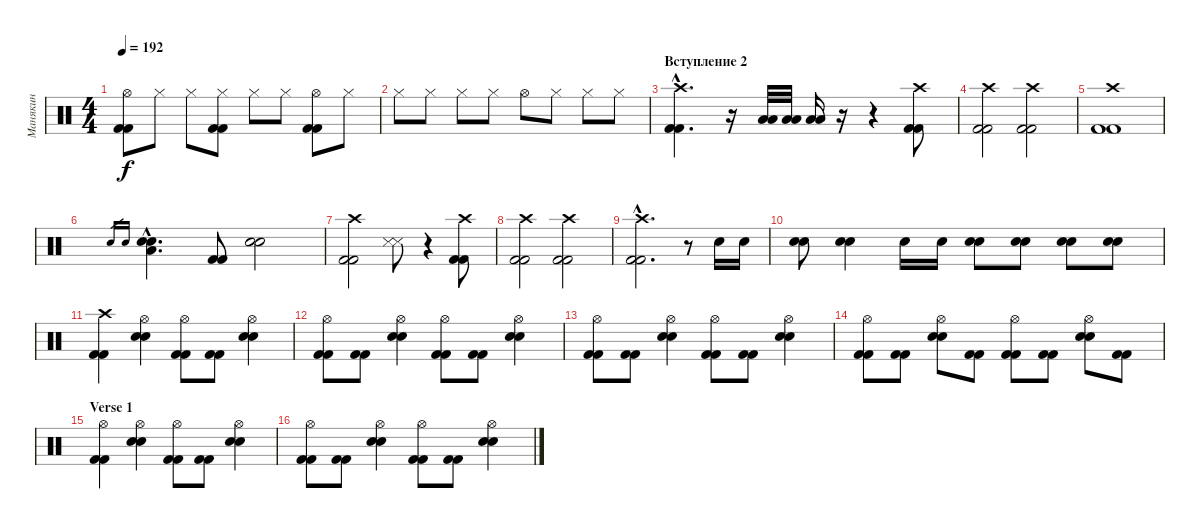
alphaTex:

\track ("Манякин" "Манякин") {instrument percussion}
\staff {score}
\articulation defaults
\ts (4 4)
\tempo 192
\clef neutral
\ks c
("Hi-Hat (open)" "Kick (hit) 2" "Kick (hit) 2").8{dy f} "Hi-Hat (closed)".8 "Hi-Hat (closed)".8 ("Hi-Hat (closed)" "Kick (hit) 2" "Kick (hit) 2").8 "Hi-Hat (closed)".8 "Hi-Hat (closed)".8 ("Hi-Hat (open)" "Kick (hit) 2" "Kick (hit) 2").8 "Hi-Hat (closed)".8 |
"Hi-Hat (closed)".8 "Hi-Hat (closed)".8 "Hi-Hat (closed)".8 "Hi-Hat (closed)".8 "Hi-Hat (open)".8 "Hi-Hat (closed)".8 "Hi-Hat (closed)".8 "Hi-Hat (closed)".8 |
\section ("" "Вступление 2")
("Crash high (hit)"{hac} "Kick (hit) 2"{hac} "Kick (hit) 2"{hac}).4{d} r.16 ("Low Tom (hit)" "Low Tom (hit)").32 ("Low Tom (hit)" "Low Tom (hit)").32 ("Low Tom (hit)" "Low Tom (hit)").16 r.16 r.4 ("Crash high (hit)" "Kick (hit) 2" "Kick (hit) 2").8 |
("Crash high (hit)" "Kick (hit) 2" "Kick (hit) 2").2 ("Crash high (hit)" "Kick (hit) 2" "Kick (hit) 2").2 |
("Crash high (hit)" "Kick (hit) 2" "Kick (hit) 2").1 |
"Electric Snare (hit)".16{gr} "Electric Snare (hit)".16{gr} ("Electric Snare (hit)"{hac} "Electric Snare (hit)"{hac} "Low Tom (hit)"{hac}).4{d} ("Kick (hit) 2" "Kick (hit) 2").8 ("Electric Snare (hit)" "Electric Snare (hit)").2 |
("Crash high (hit)" "Kick (hit) 2" "Kick (hit) 2").2 ("Snare (side stick) 3" "Snare (side stick) 3").8 r.4 ("Crash high (hit)" "Kick (hit) 2" "Kick (hit) 2").8 |
("Crash high (hit)" "Kick (hit) 2" "Kick (hit) 2").2 ("Crash high (hit)" "Kick (hit) 2" "Kick (hit) 2").2 |
("Crash high (hit)"{hac} "Kick (hit) 2"{hac} "Kick (hit) 2"{hac}).2{d} r.8 "Electric Snare (hit)".16 "Electric Snare (hit)".16 |
("Electric Snare (hit)" "Electric Snare (hit)").8 ("Electric Snare (hit)" "Electric Snare (hit)").4 "Electric Snare (hit)".16 "Electric Snare (hit)".16 ("Electric Snare (hit)" "Electric Snare (hit)").8 ("Electric Snare (hit)" "Electric Snare (hit)").8 ("Electric Snare (hit)" "Electric Snare (hit)").8 ("Electric Snare (hit)" "Electric Snare (hit)").8 |
("Crash high (hit)" "Kick (hit) 2" "Kick (hit) 2").4 ("Hi-Hat (open)" "Electric Snare (hit)" "Electric Snare (hit)").4 ("Hi-Hat (open)" "Kick (hit) 2" "Kick (hit) 2").8 ("Kick (hit) 2" "Kick (hit) 2").8 ("Hi-Hat (open)" "Electric Snare (hit)" "Electric Snare (hit)").4 |
("Hi-Hat (open)" "Kick (hit) 2" "Kick (hit) 2").8 ("Kick (hit) 2" "Kick (hit) 2").8 ("Hi-Hat (open)" "Electric Snare (hit)" "Electric Snare (hit)").4 ("Hi-Hat (open)" "Kick (hit) 2" "Kick (hit) 2").8 ("Kick (hit) 2" "Kick (hit) 2").8 ("Hi-Hat (open)" "Electric Snare (hit)" "Electric Snare (hit)").4 |
("Hi-Hat (open)" "Kick (hit) 2" "Kick (hit) 2").8 ("Kick (hit) 2" "Kick (hit) 2").8 ("Hi-Hat (open)" "Electric Snare (hit)" "Electric Snare (hit)").4 ("Hi-Hat (open)" "Kick (hit) 2" "Kick (hit) 2").8 ("Kick (hit) 2" "Kick (hit) 2").8 ("Hi-Hat (open)" "Electric Snare (hit)" "Electric Snare (hit)").4 |
("Hi-Hat (open)" "Kick (hit) 2" "Kick (hit) 2").8 ("Kick (hit) 2" "Kick (hit) 2").8 ("Hi-Hat (open)" "Electric Snare (hit)" "Electric Snare (hit)").8 ("Kick (hit) 2" "Kick (hit) 2").8 ("Hi-Hat (open)" "Kick (hit) 2" "Kick (hit) 2").8 ("Kick (hit) 2" "Kick (hit) 2").8 ("Hi-Hat (open)" "Electric Snare (hit)" "Electric Snare (hit)").8 ("Kick (hit) 2" "Kick (hit) 2").8 |
\section ("" "Verse 1")
("Hi-Hat (open)" "Kick (hit) 2" "Kick (hit) 2").4 ("Hi-Hat (open)" "Electric Snare (hit)" "Electric Snare (hit)").4 ("Hi-Hat (open)" "Kick (hit) 2" "Kick (hit) 2").8 ("Kick (hit) 2" "Kick (hit) 2").8 ("Hi-Hat (open)" "Electric Snare (hit)" "Electric Snare (hit)").4 |
("Hi-Hat (open)" "Kick (hit) 2" "Kick (hit) 2").8 ("Kick (hit) 2" "Kick (hit) 2").8 ("Hi-Hat (open)" "Electric Snare (hit)" "Electric Snare (hit)").4 ("Hi-Hat (open)" "Kick (hit) 2" "Kick (hit) 2").8 ("Kick (hit) 2" "Kick (hit) 2").8 ("Hi-Hat (open)" "Electric Snare (hit)" "Electric Snare (hit)").4
